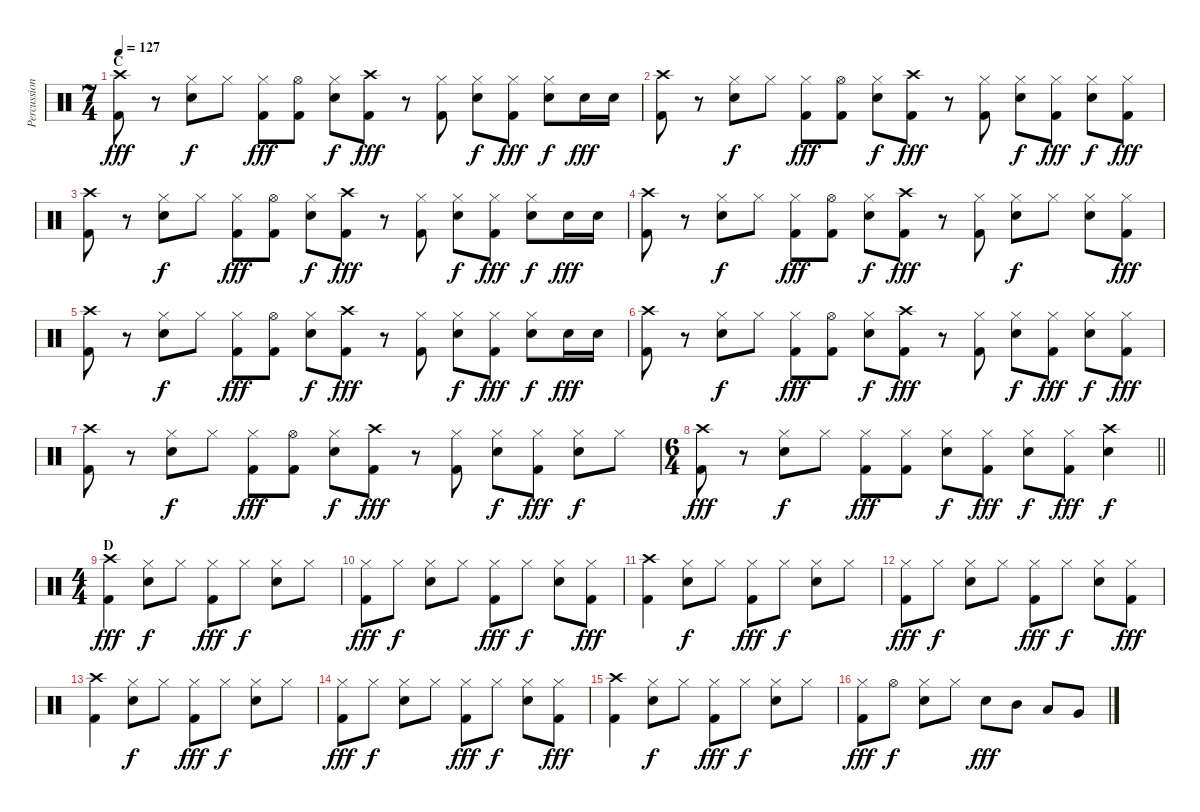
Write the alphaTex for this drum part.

\track ("Percussion" "Percussion") {instrument percussion}
\staff {score}
\articulation defaults
\ts (7 4)
\section ("" "C")
\tempo 127
\clef neutral
\ks c
("Crash high (hit)" "Kick (hit) 2").8{dy fff} r.8 ("Hi-Hat (closed)" "Electric Snare (hit)").8{dy f} "Hi-Hat (closed)".8 ("Hi-Hat (closed)" "Kick (hit) 2").8{dy fff} ("Hi-Hat (open)" "Kick (hit) 2").8 ("Hi-Hat (closed)" "Electric Snare (hit)").8{dy f} ("Crash high (hit)" "Kick (hit) 2").8{dy fff} r.8 ("Hi-Hat (closed)" "Kick (hit) 2").8 ("Hi-Hat (closed)" "Electric Snare (hit)").8{dy f} ("Hi-Hat (closed)" "Kick (hit) 2").8{dy fff} ("Hi-Hat (closed)" "Electric Snare (hit)").8{dy f} "Electric Snare (hit)".16{dy fff} "Electric Snare (hit)".16 |
("Crash high (hit)" "Kick (hit) 2").8 r.8 ("Hi-Hat (closed)" "Electric Snare (hit)").8{dy f} "Hi-Hat (closed)".8 ("Hi-Hat (closed)" "Kick (hit) 2").8{dy fff} ("Hi-Hat (open)" "Kick (hit) 2").8 ("Hi-Hat (closed)" "Electric Snare (hit)").8{dy f} ("Crash high (hit)" "Kick (hit) 2").8{dy fff} r.8 ("Hi-Hat (closed)" "Kick (hit) 2").8 ("Hi-Hat (closed)" "Electric Snare (hit)").8{dy f} ("Hi-Hat (closed)" "Kick (hit) 2").8{dy fff} ("Hi-Hat (closed)" "Electric Snare (hit)").8{dy f} ("Hi-Hat (closed)" "Kick (hit) 2").8{dy fff} |
("Crash high (hit)" "Kick (hit) 2").8 r.8 ("Hi-Hat (closed)" "Electric Snare (hit)").8{dy f} "Hi-Hat (closed)".8 ("Hi-Hat (closed)" "Kick (hit) 2").8{dy fff} ("Hi-Hat (open)" "Kick (hit) 2").8 ("Hi-Hat (closed)" "Electric Snare (hit)").8{dy f} ("Crash high (hit)" "Kick (hit) 2").8{dy fff} r.8 ("Hi-Hat (closed)" "Kick (hit) 2").8 ("Hi-Hat (closed)" "Electric Snare (hit)").8{dy f} ("Hi-Hat (closed)" "Kick (hit) 2").8{dy fff} ("Hi-Hat (closed)" "Electric Snare (hit)").8{dy f} "Electric Snare (hit)".16{dy fff} "Electric Snare (hit)".16 |
("Crash high (hit)" "Kick (hit) 2").8 r.8 ("Hi-Hat (closed)" "Electric Snare (hit)").8{dy f} "Hi-Hat (closed)".8 ("Hi-Hat (closed)" "Kick (hit) 2").8{dy fff} ("Hi-Hat (open)" "Kick (hit) 2").8 ("Hi-Hat (closed)" "Electric Snare (hit)").8{dy f} ("Crash high (hit)" "Kick (hit) 2").8{dy fff} r.8 ("Hi-Hat (closed)" "Kick (hit) 2").8 ("Hi-Hat (closed)" "Electric Snare (hit)").8{dy f} "Hi-Hat (closed)".8 ("Hi-Hat (closed)" "Electric Snare (hit)").8 ("Hi-Hat (closed)" "Kick (hit) 2").8{dy fff} |
("Crash high (hit)" "Kick (hit) 2").8 r.8 ("Hi-Hat (closed)" "Electric Snare (hit)").8{dy f} "Hi-Hat (closed)".8 ("Hi-Hat (closed)" "Kick (hit) 2").8{dy fff} ("Hi-Hat (open)" "Kick (hit) 2").8 ("Hi-Hat (closed)" "Electric Snare (hit)").8{dy f} ("Crash high (hit)" "Kick (hit) 2").8{dy fff} r.8 ("Hi-Hat (closed)" "Kick (hit) 2").8 ("Hi-Hat (closed)" "Electric Snare (hit)").8{dy f} ("Hi-Hat (closed)" "Kick (hit) 2").8{dy fff} ("Hi-Hat (closed)" "Electric Snare (hit)").8{dy f} "Electric Snare (hit)".16{dy fff} "Electric Snare (hit)".16 |
("Crash high (hit)" "Kick (hit) 2").8 r.8 ("Hi-Hat (closed)" "Electric Snare (hit)").8{dy f} "Hi-Hat (closed)".8 ("Hi-Hat (closed)" "Kick (hit) 2").8{dy fff} ("Hi-Hat (open)" "Kick (hit) 2").8 ("Hi-Hat (closed)" "Electric Snare (hit)").8{dy f} ("Crash high (hit)" "Kick (hit) 2").8{dy fff} r.8 ("Hi-Hat (closed)" "Kick (hit) 2").8 ("Hi-Hat (closed)" "Electric Snare (hit)").8{dy f} ("Hi-Hat (closed)" "Kick (hit) 2").8{dy fff} ("Hi-Hat (closed)" "Electric Snare (hit)").8{dy f} ("Hi-Hat (closed)" "Kick (hit) 2").8{dy fff} |
("Crash high (hit)" "Kick (hit) 2").8 r.8 ("Hi-Hat (closed)" "Electric Snare (hit)").8{dy f} "Hi-Hat (closed)".8 ("Hi-Hat (closed)" "Kick (hit) 2").8{dy fff} ("Hi-Hat (open)" "Kick (hit) 2").8 ("Hi-Hat (closed)" "Electric Snare (hit)").8{dy f} ("Crash high (hit)" "Kick (hit) 2").8{dy fff} r.8 ("Hi-Hat (closed)" "Kick (hit) 2").8 ("Hi-Hat (closed)" "Electric Snare (hit)").8{dy f} ("Hi-Hat (closed)" "Kick (hit) 2").8{dy fff} ("Hi-Hat (closed)" "Electric Snare (hit)").8{dy f} "Hi-Hat (closed)".8 |
\ts (6 4)
\barLineRight lightlight
("Crash high (hit)" "Kick (hit) 2").8{dy fff} r.8 ("Hi-Hat (closed)" "Electric Snare (hit)").8{dy f} "Hi-Hat (closed)".8 ("Hi-Hat (closed)" "Kick (hit) 2").8{dy fff} ("Hi-Hat (closed)" "Kick (hit) 2").8 ("Hi-Hat (closed)" "Electric Snare (hit)").8{dy f} ("Hi-Hat (closed)" "Kick (hit) 2").8{dy fff} ("Hi-Hat (closed)" "Electric Snare (hit)").8{dy f} ("Hi-Hat (closed)" "Kick (hit) 2").8{dy fff} ("Crash high (hit)" "Electric Snare (hit)").4{dy f} |
\ts (4 4)
\section ("" "D")
("Crash high (hit)" "Kick (hit) 2").4{dy fff} ("Hi-Hat (closed)" "Electric Snare (hit)").8{dy f} "Hi-Hat (closed)".8 ("Hi-Hat (closed)" "Kick (hit) 2").8{dy fff} "Hi-Hat (closed)".8{dy f} ("Hi-Hat (closed)" "Electric Snare (hit)").8 "Hi-Hat (closed)".8 |
("Hi-Hat (closed)" "Kick (hit) 2").8{dy fff} "Hi-Hat (closed)".8{dy f} ("Hi-Hat (closed)" "Electric Snare (hit)").8 "Hi-Hat (closed)".8 ("Hi-Hat (closed)" "Kick (hit) 2").8{dy fff} "Hi-Hat (closed)".8{dy f} ("Hi-Hat (closed)" "Electric Snare (hit)").8 ("Hi-Hat (closed)" "Kick (hit) 2").8{dy fff} |
("Crash high (hit)" "Kick (hit) 2").4 ("Hi-Hat (closed)" "Electric Snare (hit)").8{dy f} "Hi-Hat (closed)".8 ("Hi-Hat (closed)" "Kick (hit) 2").8{dy fff} "Hi-Hat (closed)".8{dy f} ("Hi-Hat (closed)" "Electric Snare (hit)").8 "Hi-Hat (closed)".8 |
("Hi-Hat (closed)" "Kick (hit) 2").8{dy fff} "Hi-Hat (closed)".8{dy f} ("Hi-Hat (closed)" "Electric Snare (hit)").8 "Hi-Hat (closed)".8 ("Hi-Hat (closed)" "Kick (hit) 2").8{dy fff} "Hi-Hat (closed)".8{dy f} ("Hi-Hat (closed)" "Electric Snare (hit)").8 ("Hi-Hat (closed)" "Kick (hit) 2").8{dy fff} |
("Crash high (hit)" "Kick (hit) 2").4 ("Hi-Hat (closed)" "Electric Snare (hit)").8{dy f} "Hi-Hat (closed)".8 ("Hi-Hat (closed)" "Kick (hit) 2").8{dy fff} "Hi-Hat (closed)".8{dy f} ("Hi-Hat (closed)" "Electric Snare (hit)").8 "Hi-Hat (closed)".8 |
("Hi-Hat (closed)" "Kick (hit) 2").8{dy fff} "Hi-Hat (closed)".8{dy f} ("Hi-Hat (closed)" "Electric Snare (hit)").8 "Hi-Hat (closed)".8 ("Hi-Hat (closed)" "Kick (hit) 2").8{dy fff} "Hi-Hat (closed)".8{dy f} ("Hi-Hat (closed)" "Electric Snare (hit)").8 ("Hi-Hat (closed)" "Kick (hit) 2").8{dy fff} |
("Crash high (hit)" "Kick (hit) 2").4 ("Hi-Hat (closed)" "Electric Snare (hit)").8{dy f} "Hi-Hat (closed)".8 ("Hi-Hat (closed)" "Kick (hit) 2").8{dy fff} "Hi-Hat (closed)".8{dy f} ("Hi-Hat (closed)" "Electric Snare (hit)").8 "Hi-Hat (closed)".8 |
("Hi-Hat (closed)" "Kick (hit) 2").8{dy fff} "Hi-Hat (open)".8{dy f} ("Hi-Hat (closed)" "Electric Snare (hit)").8 "Hi-Hat (closed)".8 "Electric Snare (hit)".8{dy fff} "Mid Tom (hit)".8 "Low Tom (hit)".8 "Very Low Tom (hit)".8
